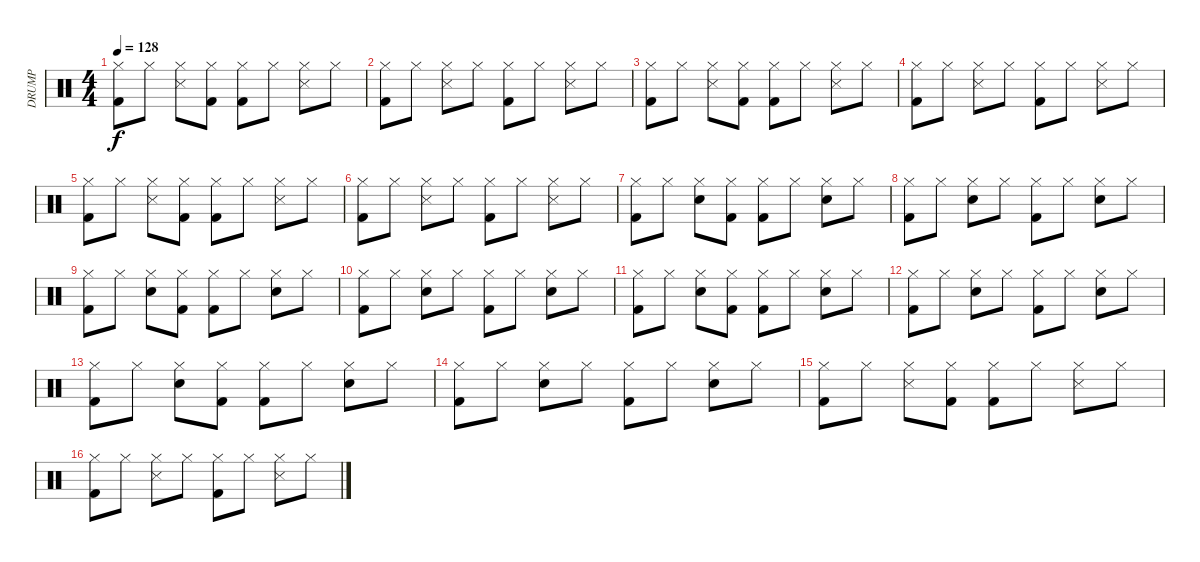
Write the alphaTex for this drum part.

\track ("DRUMP" "DRUMP") {instrument percussion}
\staff {score}
\articulation defaults
\ts (4 4)
\tempo 128
\clef neutral
\ks c
("Hi-Hat (closed)" "Kick (hit) 2").8{dy f} "Hi-Hat (closed)".8 ("Hi-Hat (closed)" "Snare (side stick) 3").8 ("Hi-Hat (closed)" "Kick (hit) 2").8 ("Hi-Hat (closed)" "Kick (hit) 2").8 "Hi-Hat (closed)".8 ("Hi-Hat (closed)" "Snare (side stick) 3").8 "Hi-Hat (closed)".8 |
("Hi-Hat (closed)" "Kick (hit) 2").8 "Hi-Hat (closed)".8 ("Hi-Hat (closed)" "Snare (side stick) 3").8 "Hi-Hat (closed)".8 ("Hi-Hat (closed)" "Kick (hit) 2").8 "Hi-Hat (closed)".8 ("Hi-Hat (closed)" "Snare (side stick) 3").8 "Hi-Hat (closed)".8 |
("Hi-Hat (closed)" "Kick (hit) 2").8 "Hi-Hat (closed)".8 ("Hi-Hat (closed)" "Snare (side stick) 3").8 ("Hi-Hat (closed)" "Kick (hit) 2").8 ("Hi-Hat (closed)" "Kick (hit) 2").8 "Hi-Hat (closed)".8 ("Hi-Hat (closed)" "Snare (side stick) 3").8 "Hi-Hat (closed)".8 |
("Hi-Hat (closed)" "Kick (hit) 2").8 "Hi-Hat (closed)".8 ("Hi-Hat (closed)" "Snare (side stick) 3").8 "Hi-Hat (closed)".8 ("Hi-Hat (closed)" "Kick (hit) 2").8 "Hi-Hat (closed)".8 ("Hi-Hat (closed)" "Snare (side stick) 3").8 "Hi-Hat (closed)".8 |
("Hi-Hat (closed)" "Kick (hit) 2").8 "Hi-Hat (closed)".8 ("Hi-Hat (closed)" "Snare (side stick) 3").8 ("Hi-Hat (closed)" "Kick (hit) 2").8 ("Hi-Hat (closed)" "Kick (hit) 2").8 "Hi-Hat (closed)".8 ("Hi-Hat (closed)" "Snare (side stick) 3").8 "Hi-Hat (closed)".8 |
("Hi-Hat (closed)" "Kick (hit) 2").8 "Hi-Hat (closed)".8 ("Hi-Hat (closed)" "Snare (side stick) 3").8 "Hi-Hat (closed)".8 ("Hi-Hat (closed)" "Kick (hit) 2").8 "Hi-Hat (closed)".8 ("Hi-Hat (closed)" "Snare (side stick) 3").8 "Hi-Hat (closed)".8 |
("Hi-Hat (closed)" "Kick (hit) 2").8 "Hi-Hat (closed)".8 ("Hi-Hat (closed)" "Electric Snare (hit)").8 ("Hi-Hat (closed)" "Kick (hit) 2").8 ("Hi-Hat (closed)" "Kick (hit) 2").8 "Hi-Hat (closed)".8 ("Hi-Hat (closed)" "Electric Snare (hit)").8 "Hi-Hat (closed)".8 |
("Hi-Hat (closed)" "Kick (hit) 2").8 "Hi-Hat (closed)".8 ("Hi-Hat (closed)" "Electric Snare (hit)").8 "Hi-Hat (closed)".8 ("Hi-Hat (closed)" "Kick (hit) 2").8 "Hi-Hat (closed)".8 ("Hi-Hat (closed)" "Electric Snare (hit)").8 "Hi-Hat (closed)".8 |
("Hi-Hat (closed)" "Kick (hit) 2").8 "Hi-Hat (closed)".8 ("Hi-Hat (closed)" "Electric Snare (hit)").8 ("Hi-Hat (closed)" "Kick (hit) 2").8 ("Hi-Hat (closed)" "Kick (hit) 2").8 "Hi-Hat (closed)".8 ("Hi-Hat (closed)" "Electric Snare (hit)").8 "Hi-Hat (closed)".8 |
("Hi-Hat (closed)" "Kick (hit) 2").8 "Hi-Hat (closed)".8 ("Hi-Hat (closed)" "Electric Snare (hit)").8 "Hi-Hat (closed)".8 ("Hi-Hat (closed)" "Kick (hit) 2").8 "Hi-Hat (closed)".8 ("Hi-Hat (closed)" "Electric Snare (hit)").8 "Hi-Hat (closed)".8 |
("Hi-Hat (closed)" "Kick (hit) 2").8 "Hi-Hat (closed)".8 ("Hi-Hat (closed)" "Electric Snare (hit)").8 ("Hi-Hat (closed)" "Kick (hit) 2").8 ("Hi-Hat (closed)" "Kick (hit) 2").8 "Hi-Hat (closed)".8 ("Hi-Hat (closed)" "Electric Snare (hit)").8 "Hi-Hat (closed)".8 |
("Hi-Hat (closed)" "Kick (hit) 2").8 "Hi-Hat (closed)".8 ("Hi-Hat (closed)" "Electric Snare (hit)").8 "Hi-Hat (closed)".8 ("Hi-Hat (closed)" "Kick (hit) 2").8 "Hi-Hat (closed)".8 ("Hi-Hat (closed)" "Electric Snare (hit)").8 "Hi-Hat (closed)".8 |
("Hi-Hat (closed)" "Kick (hit) 2").8 "Hi-Hat (closed)".8 ("Hi-Hat (closed)" "Electric Snare (hit)").8 ("Hi-Hat (closed)" "Kick (hit) 2").8 ("Hi-Hat (closed)" "Kick (hit) 2").8 "Hi-Hat (closed)".8 ("Hi-Hat (closed)" "Electric Snare (hit)").8 "Hi-Hat (closed)".8 |
("Hi-Hat (closed)" "Kick (hit) 2").8 "Hi-Hat (closed)".8 ("Hi-Hat (closed)" "Electric Snare (hit)").8 "Hi-Hat (closed)".8 ("Hi-Hat (closed)" "Kick (hit) 2").8 "Hi-Hat (closed)".8 ("Hi-Hat (closed)" "Electric Snare (hit)").8 "Hi-Hat (closed)".8 |
("Hi-Hat (closed)" "Kick (hit) 2").8 "Hi-Hat (closed)".8 ("Hi-Hat (closed)" "Snare (side stick) 3").8 ("Hi-Hat (closed)" "Kick (hit) 2").8 ("Hi-Hat (closed)" "Kick (hit) 2").8 "Hi-Hat (closed)".8 ("Hi-Hat (closed)" "Snare (side stick) 3").8 "Hi-Hat (closed)".8 |
("Hi-Hat (closed)" "Kick (hit) 2").8 "Hi-Hat (closed)".8 ("Hi-Hat (closed)" "Snare (side stick) 3").8 "Hi-Hat (closed)".8 ("Hi-Hat (closed)" "Kick (hit) 2").8 "Hi-Hat (closed)".8 ("Hi-Hat (closed)" "Snare (side stick) 3").8 "Hi-Hat (closed)".8
